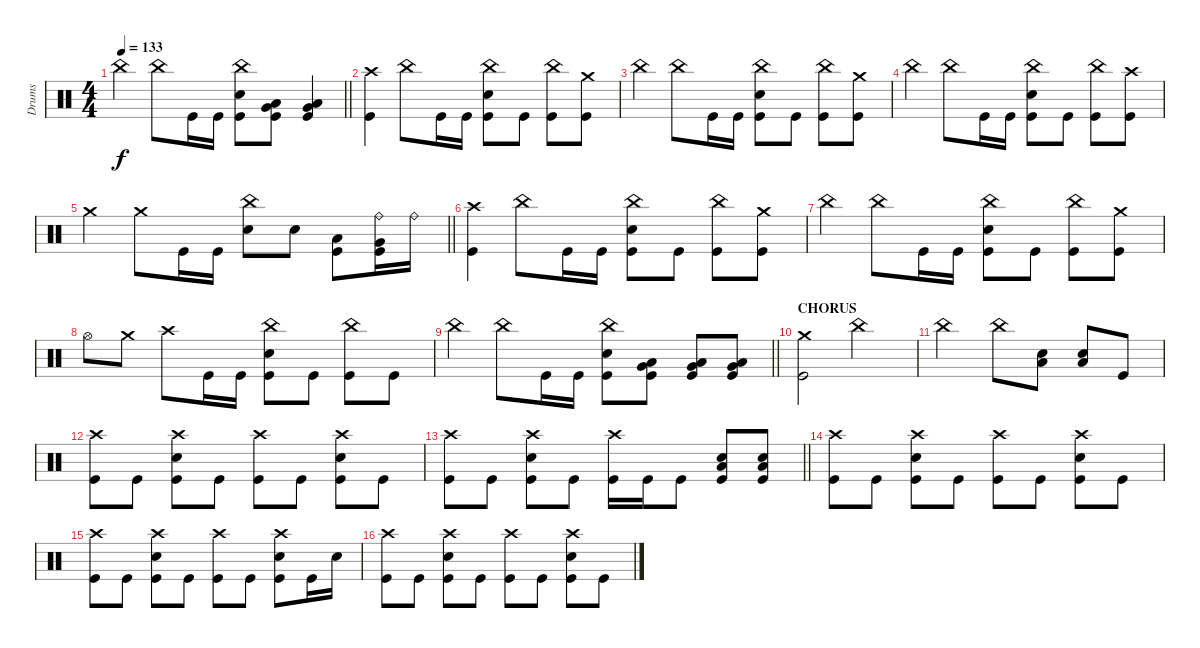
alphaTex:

\track ("Drums" "Drums") {instrument percussion}
\staff
\articulation defaults
\ts (4 4)
\tempo 133
\clef neutral
\barLineRight lightlight
\ks c "China (hit)".4{dy f} "China (hit)".8 "Kick (hit)".16 "Kick (hit)".16
("China (hit)" "Electric Snare (hit)" "Kick (hit)").8 ("Very Low Tom (hit)" "Low Floor Tom (hit)" "Kick (hit)").8 ("Very Low Tom (hit)" "Low Floor Tom (hit)" "Kick (hit)").4 |
("Crash high (hit)" "Kick (hit)").4 "China (hit)".8 "Kick (hit)".16 "Kick (hit)".16 ("China (hit)" "Electric Snare (hit)" "Kick (hit)").8 "Kick (hit)".8 ("China (hit)" "Kick (hit)").8 ("Crash medium (hit)" "Kick (hit)").8 |
"China (hit)".4 "China (hit)".8 "Kick (hit)".16 "Kick (hit)".16 ("China (hit)" "Electric Snare (hit)" "Kick (hit)").8 "Kick (hit)".8 ("China (hit)" "Kick (hit)").8 ("Crash medium (hit)" "Kick (hit)").8 |
"China (hit)".4 "China (hit)".8 "Kick (hit)".16 "Kick (hit)".16 ("China (hit)" "Electric Snare (hit)" "Kick (hit)").8 "Kick (hit)".8 ("China (hit)" "Kick (hit)").8 ("Crash high (hit)" "Kick (hit)").8 |
\barLineRight lightlight "Crash medium (hit)".4 "Crash medium (hit)".8 "Kick (hit)".16 "Kick (hit)".16
("China (hit)" "Electric Snare (hit)").8 "Electric Snare (hit)".8 ("Low Tom (hit)" "Kick (hit)").8 ("Ride (bell)" "Very Low Tom (hit)" "Kick (hit)").16 "Ride (bell)".16 |
("Crash high (hit)" "Kick (hit)").4 "China (hit)".8 "Kick (hit)".16 "Kick (hit)".16 ("China (hit)" "Electric Snare (hit)" "Kick (hit)").8 "Kick (hit)".8 ("China (hit)" "Kick (hit)").8 ("Crash medium (hit)" "Kick (hit)").8 |
"China (hit)".4 "China (hit)".8 "Kick (hit)".16 "Kick (hit)".16 ("China (hit)" "Electric Snare (hit)" "Kick (hit)").8 "Kick (hit)".8 ("China (hit)" "Kick (hit)").8 ("Crash medium (hit)" "Kick (hit)").8 |
"Hi-Hat (open)".8 "Crash medium (hit)".8 "Crash high (hit)".8 "Kick (hit)".16 "Kick (hit)".16 ("China (hit)" "Electric Snare (hit)" "Kick (hit)").8 "Kick (hit)".8 ("China (hit)" "Kick (hit)").8 "Kick (hit)".8 |
\barLineRight lightlight "China (hit)".4 "China (hit)".8 "Kick (hit)".16 "Kick (hit)".16
("China (hit)" "Electric Snare (hit)" "Kick (hit)").8 ("Very Low Tom (hit)" "Low Floor Tom (hit)" "Kick (hit)").8 ("Very Low Tom (hit)" "Low Floor Tom (hit)" "Kick (hit)").8 ("Very Low Tom (hit)" "Low Floor Tom (hit)" "Kick (hit)").8 |
\section ("" "CHORUS")
("Crash medium (hit)" "Kick (hit)").2 "China (hit)".2 |
"China (hit)".2 "China (hit)".8 ("Low Floor Tom (hit)" "Electric Snare (hit)").8 ("Low Floor Tom (hit)" "Electric Snare (hit)").8 "Kick (hit)".8 |
("Crash high (hit)" "Kick (hit)").8 "Kick (hit)".8 ("Crash high (hit)" "Electric Snare (hit)" "Kick (hit)").8 "Kick (hit)".8 ("Crash high (hit)" "Kick (hit)").8 "Kick (hit)".8 ("Crash high (hit)" "Electric Snare (hit)" "Kick (hit)").8 "Kick (hit)".8 |
\barLineRight lightlight
("Crash high (hit)" "Kick (hit)").8 "Kick (hit)".8 ("Crash high (hit)" "Electric Snare (hit)" "Kick (hit)").8 "Kick (hit)".8 ("Crash high (hit)" "Kick (hit)").16 "Kick (hit)".16 "Kick (hit)".8 ("Low Floor Tom (hit)" "Electric Snare (hit)" "Kick (hit)").8 ("Low Floor Tom (hit)" "Electric Snare (hit)" "Kick (hit)").8 |
("Crash high (hit)" "Kick (hit)").8 "Kick (hit)".8 ("Crash high (hit)" "Electric Snare (hit)" "Kick (hit)").8 "Kick (hit)".8 ("Crash high (hit)" "Kick (hit)").8 "Kick (hit)".8 ("Crash high (hit)" "Electric Snare (hit)" "Kick (hit)").8 "Kick (hit)".8 |
("Crash high (hit)" "Kick (hit)").8 "Kick (hit)".8 ("Crash high (hit)" "Electric Snare (hit)" "Kick (hit)").8 "Kick (hit)".8 ("Crash high (hit)" "Kick (hit)").8 "Kick (hit)".8 ("Crash high (hit)" "Electric Snare (hit)" "Kick (hit)").8 "Kick (hit)".16 "Electric Snare (hit)".16 |
("Crash high (hit)" "Kick (hit)").8 "Kick (hit)".8 ("Crash high (hit)" "Electric Snare (hit)" "Kick (hit)").8 "Kick (hit)".8 ("Crash high (hit)" "Kick (hit)").8 "Kick (hit)".8 ("Crash high (hit)" "Electric Snare (hit)" "Kick (hit)").8 "Kick (hit)".8
